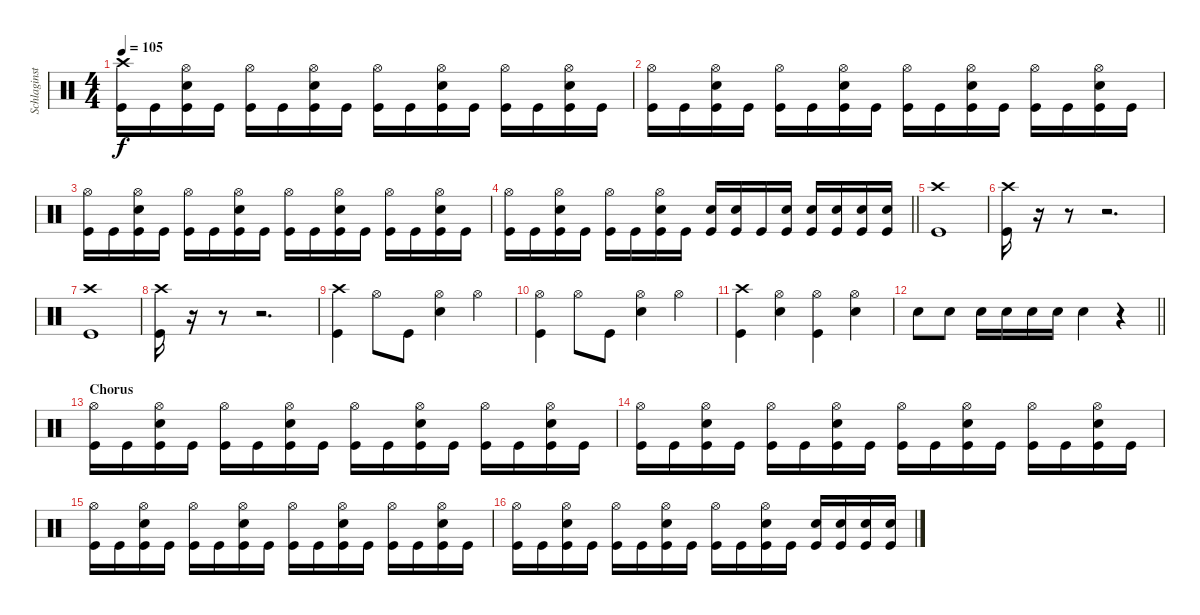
\track ("Schlaginstrumente - Auswahl" "Schlaginst") {instrument percussion}
\staff {score}
\articulation defaults
\ts (4 4)
\tempo 105
\clef neutral
\ks c
("Kick (hit)" "Crash high (hit)").16{dy f} "Kick (hit)".16 ("Kick (hit)" "Hi-Hat (open)" "Snare (hit) 2").16 "Kick (hit)".16 ("Kick (hit)" "Hi-Hat (open)").16 "Kick (hit)".16 ("Kick (hit)" "Hi-Hat (open)" "Snare (hit) 2").16 "Kick (hit)".16 ("Kick (hit)" "Hi-Hat (open)").16 "Kick (hit)".16 ("Kick (hit)" "Hi-Hat (open)" "Snare (hit) 2").16 "Kick (hit)".16 ("Kick (hit)" "Hi-Hat (open)").16 "Kick (hit)".16 ("Kick (hit)" "Hi-Hat (open)" "Snare (hit) 2").16 "Kick (hit)".16 |
("Kick (hit)" "Hi-Hat (open)").16 "Kick (hit)".16 ("Kick (hit)" "Hi-Hat (open)" "Snare (hit) 2").16 "Kick (hit)".16 ("Kick (hit)" "Hi-Hat (open)").16 "Kick (hit)".16 ("Kick (hit)" "Hi-Hat (open)" "Snare (hit) 2").16 "Kick (hit)".16 ("Kick (hit)" "Hi-Hat (open)").16 "Kick (hit)".16 ("Kick (hit)" "Hi-Hat (open)" "Snare (hit) 2").16 "Kick (hit)".16 ("Kick (hit)" "Hi-Hat (open)").16 "Kick (hit)".16 ("Kick (hit)" "Hi-Hat (open)" "Snare (hit) 2").16 "Kick (hit)".16 |
("Kick (hit)" "Hi-Hat (open)").16 "Kick (hit)".16 ("Kick (hit)" "Hi-Hat (open)" "Snare (hit) 2").16 "Kick (hit)".16 ("Kick (hit)" "Hi-Hat (open)").16 "Kick (hit)".16 ("Kick (hit)" "Hi-Hat (open)" "Snare (hit) 2").16 "Kick (hit)".16 ("Kick (hit)" "Hi-Hat (open)").16 "Kick (hit)".16 ("Kick (hit)" "Hi-Hat (open)" "Snare (hit) 2").16 "Kick (hit)".16 ("Kick (hit)" "Hi-Hat (open)").16 "Kick (hit)".16 ("Kick (hit)" "Hi-Hat (open)" "Snare (hit) 2").16 "Kick (hit)".16 |
\barLineRight lightlight
("Kick (hit)" "Hi-Hat (open)").16 "Kick (hit)".16 ("Kick (hit)" "Hi-Hat (open)" "Snare (hit) 2").16 "Kick (hit)".16 ("Kick (hit)" "Hi-Hat (open)").16 "Kick (hit)".16 ("Kick (hit)" "Hi-Hat (open)" "Snare (hit) 2").16 "Kick (hit)".16 ("Kick (hit)" "Snare (hit) 2").16 ("Kick (hit)" "Snare (hit) 2").16 "Kick (hit)".16 ("Kick (hit)" "Snare (hit) 2").16 ("Kick (hit)" "Snare (hit) 2").16 ("Kick (hit)" "Snare (hit) 2").16 ("Kick (hit)" "Snare (hit) 2").16 ("Kick (hit)" "Snare (hit) 2").16 |
("Kick (hit)" "Crash high (hit)").1 |
("Kick (hit)" "Crash high (hit)").16 r.16 r.8 r.2{d} |
("Kick (hit)" "Crash high (hit)").1 |
("Kick (hit)" "Crash high (hit)").16 r.16 r.8 r.2{d} |
("Kick (hit)" "Crash high (hit)").4 "Hi-Hat (open)".8 "Kick (hit)".8 ("Hi-Hat (open)" "Snare (hit) 2").4 "Hi-Hat (open)".4 |
("Kick (hit)" "Hi-Hat (open)").4 "Hi-Hat (open)".8 "Kick (hit)".8 ("Hi-Hat (open)" "Snare (hit) 2").4 "Hi-Hat (open)".4 |
("Kick (hit)" "Crash high (hit)").4 ("Hi-Hat (open)" "Snare (hit) 2").4 ("Hi-Hat (open)" "Kick (hit)").4 ("Hi-Hat (open)" "Snare (hit) 2").4 |
\barLineRight lightlight "Snare (hit) 2".8 "Snare (hit) 2".8 "Snare (hit) 2".16 "Snare (hit) 2".16 "Snare (hit) 2".16 "Snare (hit) 2".16 "Snare (hit) 2".4
r.4 |
\section ("" "Chorus")
("Kick (hit)" "Hi-Hat (open)").16 "Kick (hit)".16 ("Kick (hit)" "Hi-Hat (open)" "Snare (hit) 2").16 "Kick (hit)".16 ("Kick (hit)" "Hi-Hat (open)").16 "Kick (hit)".16 ("Kick (hit)" "Hi-Hat (open)" "Snare (hit) 2").16 "Kick (hit)".16 ("Kick (hit)" "Hi-Hat (open)").16 "Kick (hit)".16 ("Kick (hit)" "Hi-Hat (open)" "Snare (hit) 2").16 "Kick (hit)".16 ("Kick (hit)" "Hi-Hat (open)").16 "Kick (hit)".16 ("Kick (hit)" "Hi-Hat (open)" "Snare (hit) 2").16 "Kick (hit)".16 |
("Kick (hit)" "Hi-Hat (open)").16 "Kick (hit)".16 ("Kick (hit)" "Hi-Hat (open)" "Snare (hit) 2").16 "Kick (hit)".16 ("Kick (hit)" "Hi-Hat (open)").16 "Kick (hit)".16 ("Kick (hit)" "Hi-Hat (open)" "Snare (hit) 2").16 "Kick (hit)".16 ("Kick (hit)" "Hi-Hat (open)").16 "Kick (hit)".16 ("Kick (hit)" "Hi-Hat (open)" "Snare (hit) 2").16 "Kick (hit)".16 ("Kick (hit)" "Hi-Hat (open)").16 "Kick (hit)".16 ("Kick (hit)" "Hi-Hat (open)" "Snare (hit) 2").16 "Kick (hit)".16 |
("Kick (hit)" "Hi-Hat (open)").16 "Kick (hit)".16 ("Kick (hit)" "Hi-Hat (open)" "Snare (hit) 2").16 "Kick (hit)".16 ("Kick (hit)" "Hi-Hat (open)").16 "Kick (hit)".16 ("Kick (hit)" "Hi-Hat (open)" "Snare (hit) 2").16 "Kick (hit)".16 ("Kick (hit)" "Hi-Hat (open)").16 "Kick (hit)".16 ("Kick (hit)" "Hi-Hat (open)" "Snare (hit) 2").16 "Kick (hit)".16 ("Kick (hit)" "Hi-Hat (open)").16 "Kick (hit)".16 ("Kick (hit)" "Hi-Hat (open)" "Snare (hit) 2").16 "Kick (hit)".16 |
("Kick (hit)" "Hi-Hat (open)").16 "Kick (hit)".16 ("Kick (hit)" "Hi-Hat (open)" "Snare (hit) 2").16 "Kick (hit)".16 ("Kick (hit)" "Hi-Hat (open)").16 "Kick (hit)".16 ("Kick (hit)" "Hi-Hat (open)" "Snare (hit) 2").16 "Kick (hit)".16 ("Kick (hit)" "Hi-Hat (open)").16 "Kick (hit)".16 ("Kick (hit)" "Hi-Hat (open)" "Snare (hit) 2").16 "Kick (hit)".16 ("Kick (hit)" "Snare (hit) 2").16 ("Kick (hit)" "Snare (hit) 2").16 ("Kick (hit)" "Snare (hit) 2").16 ("Kick (hit)" "Snare (hit) 2").16
